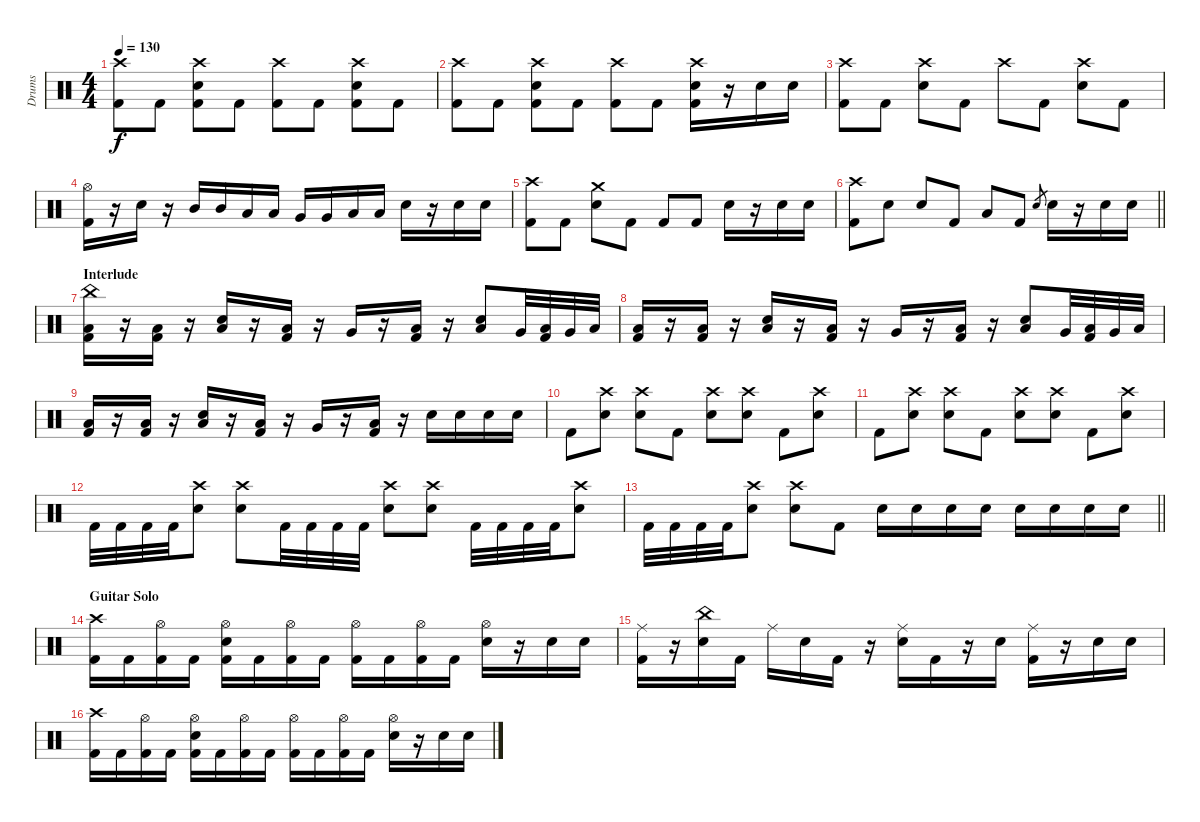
\track ("Drums" "Drums") {instrument percussion}
\staff {score}
\articulation defaults
\ts (4 4)
\tempo 130
\clef neutral
\ks c
("Crash high (hit)" "Kick (hit) 2").8{dy f} "Kick (hit) 2".8 ("Crash high (hit)" "Snare (hit) 2" "Kick (hit) 2").8 "Kick (hit) 2".8 ("Crash high (hit)" "Kick (hit) 2").8 "Kick (hit) 2".8 ("Crash high (hit)" "Snare (hit) 2" "Kick (hit) 2").8 "Kick (hit) 2".8 |
("Crash high (hit)" "Kick (hit) 2").8 "Kick (hit) 2".8 ("Crash high (hit)" "Snare (hit) 2" "Kick (hit) 2").8 "Kick (hit) 2".8 ("Crash high (hit)" "Kick (hit) 2").8 "Kick (hit) 2".8 ("Crash high (hit)" "Snare (hit) 2" "Kick (hit) 2").16 r.16 "Snare (hit) 2".16 "Snare (hit) 2".16 |
("Crash high (hit)" "Kick (hit) 2").8 "Kick (hit) 2".8 ("Crash high (hit)" "Snare (hit) 2").8 "Kick (hit) 2".8 "Crash high (hit)".8 "Kick (hit) 2".8 ("Crash high (hit)" "Snare (hit) 2").8 "Kick (hit) 2".8 |
("Hi-Hat (open)" "Kick (hit) 2").16 r.16 "Snare (hit) 2".16 r.16 "Mid Tom (hit)".16 "Mid Tom (hit)".16 "Low Tom (hit)".16 "Low Tom (hit)".16 "Very Low Tom (hit)".16 "Very Low Tom (hit)".16 "Low Floor Tom (hit)".16 "Low Floor Tom (hit)".16 "Snare (hit) 2".16 r.16 "Snare (hit) 2".16 "Snare (hit) 2".16 |
("Crash high (hit)" "Kick (hit) 2").8 "Kick (hit) 2".8 ("Crash medium (hit)" "Snare (hit) 2").8 "Kick (hit) 2".8 "Kick (hit) 2".8 "Kick (hit) 2".8 "Snare (hit) 2".16 r.16 "Snare (hit) 2".16 "Snare (hit) 2".16 |
\barLineRight lightlight
("Crash high (hit)" "Kick (hit) 2").8 "Snare (hit) 2".8 "Snare (hit) 2".8 "Kick (hit) 2".8 "Low Floor Tom (hit)".8 "Kick (hit) 2".8 "Snare (hit) 2".8{gr} "Snare (hit) 2".16 r.16 "Snare (hit) 2".16 "Snare (hit) 2".16 |
\section ("" "Interlude")
("China (hit)" "Low Floor Tom (hit)" "Kick (hit) 2").16 r.16 ("Low Floor Tom (hit)" "Kick (hit) 2").16 r.16 ("Low Floor Tom (hit)" "Snare (hit) 2").16 r.16 ("Low Floor Tom (hit)" "Kick (hit) 2").16 r.16 "Very Low Tom (hit)".16 r.16 ("Low Floor Tom (hit)" "Kick (hit) 2").16 r.16 ("Low Floor Tom (hit)" "Snare (hit) 2").8 "Very Low Tom (hit)".32 ("Low Floor Tom (hit)" "Kick (hit) 2").32 "Very Low Tom (hit)".32 "Low Floor Tom (hit)".32 |
("Low Floor Tom (hit)" "Kick (hit) 2").16 r.16 ("Low Floor Tom (hit)" "Kick (hit) 2").16 r.16 ("Low Floor Tom (hit)" "Snare (hit) 2").16 r.16 ("Low Floor Tom (hit)" "Kick (hit) 2").16 r.16 "Very Low Tom (hit)".16 r.16 ("Low Floor Tom (hit)" "Kick (hit) 2").16 r.16 ("Low Floor Tom (hit)" "Snare (hit) 2").8 "Very Low Tom (hit)".32 ("Low Floor Tom (hit)" "Kick (hit) 2").32 "Very Low Tom (hit)".32 "Low Floor Tom (hit)".32 |
("Low Floor Tom (hit)" "Kick (hit) 2").16 r.16 ("Low Floor Tom (hit)" "Kick (hit) 2").16 r.16 ("Low Floor Tom (hit)" "Snare (hit) 2").16 r.16 ("Low Floor Tom (hit)" "Kick (hit) 2").16 r.16 "Very Low Tom (hit)".16 r.16 ("Low Floor Tom (hit)" "Kick (hit) 2").16 r.16 "Snare (hit) 2".16 "Snare (hit) 2".16 "Snare (hit) 2".16 "Snare (hit) 2".16 |
"Kick (hit) 2".8 ("Crash high (hit)" "Snare (hit) 2").8 ("Crash high (hit)" "Snare (hit) 2").8 "Kick (hit) 2".8 ("Crash high (hit)" "Snare (hit) 2").8 ("Crash high (hit)" "Snare (hit) 2").8 "Kick (hit) 2".8 ("Crash high (hit)" "Snare (hit) 2").8 |
"Kick (hit) 2".8 ("Crash high (hit)" "Snare (hit) 2").8 ("Crash high (hit)" "Snare (hit) 2").8 "Kick (hit) 2".8 ("Crash high (hit)" "Snare (hit) 2").8 ("Crash high (hit)" "Snare (hit) 2").8 "Kick (hit) 2".8 ("Crash high (hit)" "Snare (hit) 2").8 |
"Kick (hit) 2".32 "Kick (hit) 2".32 "Kick (hit) 2".32 "Kick (hit) 2".32 ("Crash high (hit)" "Snare (hit) 2").8 ("Crash high (hit)" "Snare (hit) 2").8 "Kick (hit) 2".32 "Kick (hit) 2".32 "Kick (hit) 2".32 "Kick (hit) 2".32 ("Crash high (hit)" "Snare (hit) 2").8 ("Crash high (hit)" "Snare (hit) 2").8 "Kick (hit) 2".32 "Kick (hit) 2".32 "Kick (hit) 2".32 "Kick (hit) 2".32 ("Crash high (hit)" "Snare (hit) 2").8 |
\barLineRight lightlight "Kick (hit) 2".32 "Kick (hit) 2".32 "Kick (hit) 2".32 "Kick (hit) 2".32
("Crash high (hit)" "Snare (hit) 2").8 ("Crash high (hit)" "Snare (hit) 2").8 "Kick (hit) 2".8 "Snare (hit) 2".16 "Snare (hit) 2".16 "Snare (hit) 2".16 "Snare (hit) 2".16 "Snare (hit) 2".16 "Snare (hit) 2".16 "Snare (hit) 2".16 "Snare (hit) 2".16 |
\section ("" "Guitar Solo")
("Crash high (hit)" "Kick (hit) 2").16 "Kick (hit) 2".16 ("Hi-Hat (open)" "Kick (hit) 2").16 "Kick (hit) 2".16 ("Hi-Hat (open)" "Snare (hit) 2" "Kick (hit) 2").16 "Kick (hit) 2".16 ("Hi-Hat (open)" "Kick (hit) 2").16 "Kick (hit) 2".16 ("Hi-Hat (open)" "Kick (hit) 2").16 "Kick (hit) 2".16 ("Hi-Hat (open)" "Kick (hit) 2").16 "Kick (hit) 2".16 ("Hi-Hat (open)" "Snare (hit) 2").16 r.16 "Snare (hit) 2".16 "Snare (hit) 2".16 |
("Ride (middle)" "Kick (hit) 2").16 r.16 ("China (hit)" "Snare (hit) 2").16 "Kick (hit) 2".16 "Ride (middle)".16 "Snare (hit) 2".16 "Kick (hit) 2".16 r.16 ("Ride (middle)" "Snare (hit) 2").16 "Kick (hit) 2".16 r.16 "Snare (hit) 2".16 ("Ride (middle)" "Kick (hit) 2").16 r.16 "Snare (hit) 2".16 "Snare (hit) 2".16 |
("Crash high (hit)" "Kick (hit) 2").16 "Kick (hit) 2".16 ("Hi-Hat (open)" "Kick (hit) 2").16 "Kick (hit) 2".16 ("Hi-Hat (open)" "Snare (hit) 2" "Kick (hit) 2").16 "Kick (hit) 2".16 ("Hi-Hat (open)" "Kick (hit) 2").16 "Kick (hit) 2".16 ("Hi-Hat (open)" "Kick (hit) 2").16 "Kick (hit) 2".16 ("Hi-Hat (open)" "Kick (hit) 2").16 "Kick (hit) 2".16 ("Hi-Hat (open)" "Snare (hit) 2").16 r.16 "Snare (hit) 2".16 "Snare (hit) 2".16
